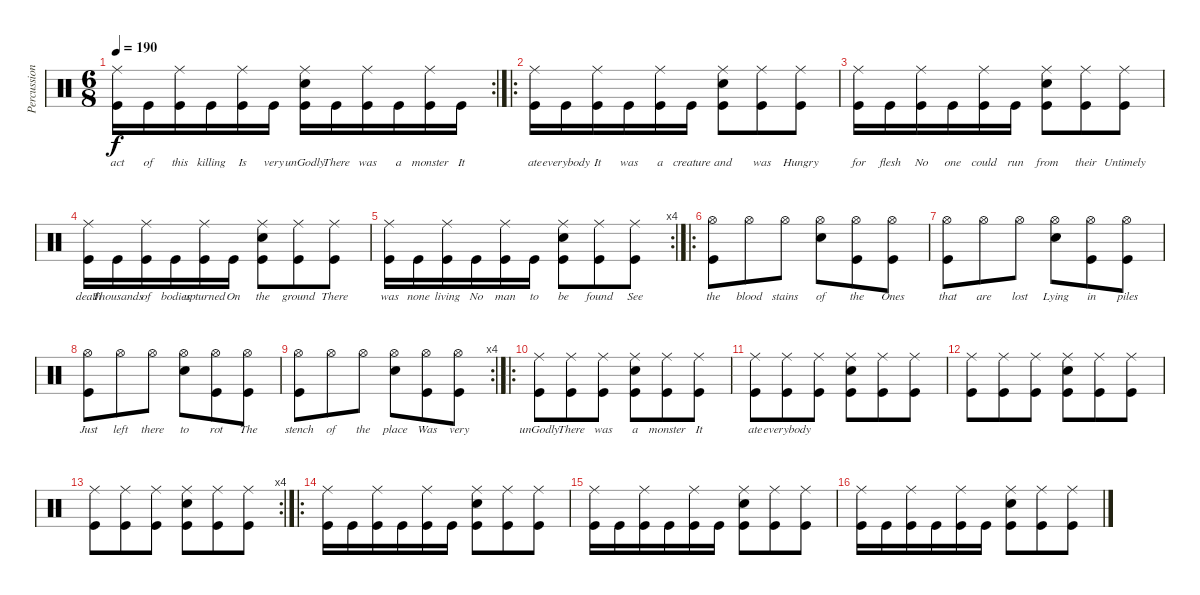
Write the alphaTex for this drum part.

\track ("Percussion" "Percussion") {instrument percussion}
\staff {score}
\articulation defaults
\rc 2
\ts (6 8)
\tempo 190
\clef neutral
\ks c
("Ride (middle)" "Kick (hit)").16{lyrics (0 "act") lyrics (1 "") lyrics (2 "") lyrics (3 "") lyrics (4 "") dy f} "Kick (hit)".16{lyrics (0 "of") lyrics (1 "") lyrics (2 "") lyrics (3 "") lyrics (4 "")} ("Ride (middle)" "Kick (hit)").16{lyrics (0 "this") lyrics (1 "") lyrics (2 "") lyrics (3 "") lyrics (4 "")} "Kick (hit)".16{lyrics (0 "killing") lyrics (1 "") lyrics (2 "") lyrics (3 "") lyrics (4 "")} ("Ride (middle)" "Kick (hit)").16{lyrics (0 "Is") lyrics (1 "") lyrics (2 "") lyrics (3 "") lyrics (4 "")} "Kick (hit)".16{lyrics (0 "very") lyrics (1 "") lyrics (2 "") lyrics (3 "") lyrics (4 "")} ("Ride (middle)" "Snare (hit) 2" "Kick (hit)").16{lyrics (0 "unGodly") lyrics (1 "") lyrics (2 "") lyrics (3 "") lyrics (4 "")} "Kick (hit)".16{lyrics (0 "There") lyrics (1 "") lyrics (2 "") lyrics (3 "") lyrics (4 "")} ("Ride (middle)" "Kick (hit)").16{lyrics (0 "was") lyrics (1 "") lyrics (2 "") lyrics (3 "") lyrics (4 "")} "Kick (hit)".16{lyrics (0 "a") lyrics (1 "") lyrics (2 "") lyrics (3 "") lyrics (4 "")} ("Ride (middle)" "Kick (hit)").16{lyrics (0 "monster") lyrics (1 "") lyrics (2 "") lyrics (3 "") lyrics (4 "")} "Kick (hit)".16{lyrics (0 "It") lyrics (1 "") lyrics (2 "") lyrics (3 "") lyrics (4 "")} |
\ro
("Ride (middle)" "Kick (hit)").16{lyrics (0 "ate") lyrics (1 "") lyrics (2 "") lyrics (3 "") lyrics (4 "")} "Kick (hit)".16{lyrics (0 "everybody") lyrics (1 "") lyrics (2 "") lyrics (3 "") lyrics (4 "")} ("Ride (middle)" "Kick (hit)").16{lyrics (0 "It") lyrics (1 "") lyrics (2 "") lyrics (3 "") lyrics (4 "")} "Kick (hit)".16{lyrics (0 "was") lyrics (1 "") lyrics (2 "") lyrics (3 "") lyrics (4 "")} ("Ride (middle)" "Kick (hit)").16{lyrics (0 "a") lyrics (1 "") lyrics (2 "") lyrics (3 "") lyrics (4 "")} "Kick (hit)".16{lyrics (0 "creature") lyrics (1 "") lyrics (2 "") lyrics (3 "") lyrics (4 "")} ("Ride (middle)" "Snare (hit) 2" "Kick (hit)").8{lyrics (0 "and") lyrics (1 "") lyrics (2 "") lyrics (3 "") lyrics (4 "")} ("Ride (middle)" "Kick (hit)").8{lyrics (0 "was") lyrics (1 "") lyrics (2 "") lyrics (3 "") lyrics (4 "")} ("Ride (middle)" "Kick (hit)").8{lyrics (0 "Hungry") lyrics (1 "") lyrics (2 "") lyrics (3 "") lyrics (4 "")} |
("Ride (middle)" "Kick (hit)").16{lyrics (0 "for") lyrics (1 "") lyrics (2 "") lyrics (3 "") lyrics (4 "")} "Kick (hit)".16{lyrics (0 "flesh") lyrics (1 "") lyrics (2 "") lyrics (3 "") lyrics (4 "")} ("Ride (middle)" "Kick (hit)").16{lyrics (0 "No") lyrics (1 "") lyrics (2 "") lyrics (3 "") lyrics (4 "")} "Kick (hit)".16{lyrics (0 "one") lyrics (1 "") lyrics (2 "") lyrics (3 "") lyrics (4 "")} ("Ride (middle)" "Kick (hit)").16{lyrics (0 "could") lyrics (1 "") lyrics (2 "") lyrics (3 "") lyrics (4 "")} "Kick (hit)".16{lyrics (0 "run") lyrics (1 "") lyrics (2 "") lyrics (3 "") lyrics (4 "")} ("Ride (middle)" "Snare (hit) 2" "Kick (hit)").8{lyrics (0 "from") lyrics (1 "") lyrics (2 "") lyrics (3 "") lyrics (4 "")} ("Ride (middle)" "Kick (hit)").8{lyrics (0 "their") lyrics (1 "") lyrics (2 "") lyrics (3 "") lyrics (4 "")} ("Ride (middle)" "Kick (hit)").8{lyrics (0 "Untimely") lyrics (1 "") lyrics (2 "") lyrics (3 "") lyrics (4 "")} |
("Ride (middle)" "Kick (hit)").16{lyrics (0 "death") lyrics (1 "") lyrics (2 "") lyrics (3 "") lyrics (4 "")} "Kick (hit)".16{lyrics (0 "Thousands") lyrics (1 "") lyrics (2 "") lyrics (3 "") lyrics (4 "")} ("Ride (middle)" "Kick (hit)").16{lyrics (0 "of") lyrics (1 "") lyrics (2 "") lyrics (3 "") lyrics (4 "")} "Kick (hit)".16{lyrics (0 "bodies") lyrics (1 "") lyrics (2 "") lyrics (3 "") lyrics (4 "")} ("Ride (middle)" "Kick (hit)").16{lyrics (0 "upturned") lyrics (1 "") lyrics (2 "") lyrics (3 "") lyrics (4 "")} "Kick (hit)".16{lyrics (0 "On") lyrics (1 "") lyrics (2 "") lyrics (3 "") lyrics (4 "")} ("Ride (middle)" "Snare (hit) 2" "Kick (hit)").8{lyrics (0 "the") lyrics (1 "") lyrics (2 "") lyrics (3 "") lyrics (4 "")} ("Ride (middle)" "Kick (hit)").8{lyrics (0 "ground") lyrics (1 "") lyrics (2 "") lyrics (3 "") lyrics (4 "")} ("Ride (middle)" "Kick (hit)").8{lyrics (0 "There") lyrics (1 "") lyrics (2 "") lyrics (3 "") lyrics (4 "")} |
\rc 4
("Ride (middle)" "Kick (hit)").16{lyrics (0 "was") lyrics (1 "") lyrics (2 "") lyrics (3 "") lyrics (4 "")} "Kick (hit)".16{lyrics (0 "none") lyrics (1 "") lyrics (2 "") lyrics (3 "") lyrics (4 "")} ("Ride (middle)" "Kick (hit)").16{lyrics (0 "living") lyrics (1 "") lyrics (2 "") lyrics (3 "") lyrics (4 "")} "Kick (hit)".16{lyrics (0 "No") lyrics (1 "") lyrics (2 "") lyrics (3 "") lyrics (4 "")} ("Ride (middle)" "Kick (hit)").16{lyrics (0 "man") lyrics (1 "") lyrics (2 "") lyrics (3 "") lyrics (4 "")} "Kick (hit)".16{lyrics (0 "to") lyrics (1 "") lyrics (2 "") lyrics (3 "") lyrics (4 "")} ("Ride (middle)" "Snare (hit) 2" "Kick (hit)").8{lyrics (0 "be") lyrics (1 "") lyrics (2 "") lyrics (3 "") lyrics (4 "")} ("Ride (middle)" "Kick (hit)").8{lyrics (0 "found") lyrics (1 "") lyrics (2 "") lyrics (3 "") lyrics (4 "")} ("Ride (middle)" "Kick (hit)").8{lyrics (0 "See") lyrics (1 "") lyrics (2 "") lyrics (3 "") lyrics (4 "")} |
\ro
("Hi-Hat (open)" "Kick (hit)").8{lyrics (0 "the") lyrics (1 "") lyrics (2 "") lyrics (3 "") lyrics (4 "")} "Hi-Hat (open)".8{lyrics (0 "blood") lyrics (1 "") lyrics (2 "") lyrics (3 "") lyrics (4 "")} "Hi-Hat (open)".8{lyrics (0 "stains") lyrics (1 "") lyrics (2 "") lyrics (3 "") lyrics (4 "")} ("Hi-Hat (open)" "Snare (hit) 2").8{lyrics (0 "of") lyrics (1 "") lyrics (2 "") lyrics (3 "") lyrics (4 "")} ("Hi-Hat (open)" "Kick (hit)").8{lyrics (0 "the") lyrics (1 "") lyrics (2 "") lyrics (3 "") lyrics (4 "")} ("Hi-Hat (open)" "Kick (hit)").8{lyrics (0 "Ones") lyrics (1 "") lyrics (2 "") lyrics (3 "") lyrics (4 "")} |
("Hi-Hat (open)" "Kick (hit)").8{lyrics (0 "that") lyrics (1 "") lyrics (2 "") lyrics (3 "") lyrics (4 "")} "Hi-Hat (open)".8{lyrics (0 "are") lyrics (1 "") lyrics (2 "") lyrics (3 "") lyrics (4 "")} "Hi-Hat (open)".8{lyrics (0 "lost") lyrics (1 "") lyrics (2 "") lyrics (3 "") lyrics (4 "")} ("Hi-Hat (open)" "Snare (hit) 2").8{lyrics (0 "Lying") lyrics (1 "") lyrics (2 "") lyrics (3 "") lyrics (4 "")} ("Hi-Hat (open)" "Kick (hit)").8{lyrics (0 "in") lyrics (1 "") lyrics (2 "") lyrics (3 "") lyrics (4 "")} ("Hi-Hat (open)" "Kick (hit)").8{lyrics (0 "piles") lyrics (1 "") lyrics (2 "") lyrics (3 "") lyrics (4 "")} |
("Hi-Hat (open)" "Kick (hit)").8{lyrics (0 "Just") lyrics (1 "") lyrics (2 "") lyrics (3 "") lyrics (4 "")} "Hi-Hat (open)".8{lyrics (0 "left") lyrics (1 "") lyrics (2 "") lyrics (3 "") lyrics (4 "")} "Hi-Hat (open)".8{lyrics (0 "there") lyrics (1 "") lyrics (2 "") lyrics (3 "") lyrics (4 "")} ("Hi-Hat (open)" "Snare (hit) 2").8{lyrics (0 "to") lyrics (1 "") lyrics (2 "") lyrics (3 "") lyrics (4 "")} ("Hi-Hat (open)" "Kick (hit)").8{lyrics (0 "rot") lyrics (1 "") lyrics (2 "") lyrics (3 "") lyrics (4 "")} ("Hi-Hat (open)" "Kick (hit)").8{lyrics (0 "The") lyrics (1 "") lyrics (2 "") lyrics (3 "") lyrics (4 "")} |
\rc 4
("Hi-Hat (open)" "Kick (hit)").8{lyrics (0 "stench") lyrics (1 "") lyrics (2 "") lyrics (3 "") lyrics (4 "")} "Hi-Hat (open)".8{lyrics (0 "of") lyrics (1 "") lyrics (2 "") lyrics (3 "") lyrics (4 "")} "Hi-Hat (open)".8{lyrics (0 "the") lyrics (1 "") lyrics (2 "") lyrics (3 "") lyrics (4 "")} ("Hi-Hat (open)" "Snare (hit) 2").8{lyrics (0 "place") lyrics (1 "") lyrics (2 "") lyrics (3 "") lyrics (4 "")} ("Hi-Hat (open)" "Kick (hit)").8{lyrics (0 "Was") lyrics (1 "") lyrics (2 "") lyrics (3 "") lyrics (4 "")} ("Hi-Hat (open)" "Kick (hit)").8{lyrics (0 "very") lyrics (1 "") lyrics (2 "") lyrics (3 "") lyrics (4 "")} |
\ro
("Ride (middle)" "Kick (hit)").8{lyrics (0 "unGodly") lyrics (1 "") lyrics (2 "") lyrics (3 "") lyrics (4 "")} ("Ride (middle)" "Kick (hit)").8{lyrics (0 "There") lyrics (1 "") lyrics (2 "") lyrics (3 "") lyrics (4 "")} ("Ride (middle)" "Kick (hit)").8{lyrics (0 "was") lyrics (1 "") lyrics (2 "") lyrics (3 "") lyrics (4 "")} ("Ride (middle)" "Snare (hit) 2" "Kick (hit)").8{lyrics (0 "a") lyrics (1 "") lyrics (2 "") lyrics (3 "") lyrics (4 "")} ("Ride (middle)" "Kick (hit)").8{lyrics (0 "monster") lyrics (1 "") lyrics (2 "") lyrics (3 "") lyrics (4 "")} ("Ride (middle)" "Kick (hit)").8{lyrics (0 "It") lyrics (1 "") lyrics (2 "") lyrics (3 "") lyrics (4 "")} |
("Ride (middle)" "Kick (hit)").8{lyrics (0 "ate") lyrics (1 "") lyrics (2 "") lyrics (3 "") lyrics (4 "")} ("Ride (middle)" "Kick (hit)").8{lyrics (0 "everybody") lyrics (1 "") lyrics (2 "") lyrics (3 "") lyrics (4 "")} ("Ride (middle)" "Kick (hit)").8 ("Ride (middle)" "Snare (hit) 2" "Kick (hit)").8 ("Ride (middle)" "Kick (hit)").8 ("Ride (middle)" "Kick (hit)").8 |
("Ride (middle)" "Kick (hit)").8 ("Ride (middle)" "Kick (hit)").8 ("Ride (middle)" "Kick (hit)").8 ("Ride (middle)" "Snare (hit) 2" "Kick (hit)").8 ("Ride (middle)" "Kick (hit)").8 ("Ride (middle)" "Kick (hit)").8 |
\rc 4
("Ride (middle)" "Kick (hit)").8 ("Ride (middle)" "Kick (hit)").8 ("Ride (middle)" "Kick (hit)").8 ("Ride (middle)" "Snare (hit) 2" "Kick (hit)").8 ("Ride (middle)" "Kick (hit)").8 ("Ride (middle)" "Kick (hit)").8 |
\ro
("Ride (middle)" "Kick (hit)").16 "Kick (hit)".16 ("Ride (middle)" "Kick (hit)").16 "Kick (hit)".16 ("Ride (middle)" "Kick (hit)").16 "Kick (hit)".16 ("Ride (middle)" "Snare (hit) 2" "Kick (hit)").8 ("Ride (middle)" "Kick (hit)").8 ("Ride (middle)" "Kick (hit)").8 |
("Ride (middle)" "Kick (hit)").16 "Kick (hit)".16 ("Ride (middle)" "Kick (hit)").16 "Kick (hit)".16 ("Ride (middle)" "Kick (hit)").16 "Kick (hit)".16 ("Ride (middle)" "Snare (hit) 2" "Kick (hit)").8 ("Ride (middle)" "Kick (hit)").8 ("Ride (middle)" "Kick (hit)").8 |
("Ride (middle)" "Kick (hit)").16 "Kick (hit)".16 ("Ride (middle)" "Kick (hit)").16 "Kick (hit)".16 ("Ride (middle)" "Kick (hit)").16 "Kick (hit)".16 ("Ride (middle)" "Snare (hit) 2" "Kick (hit)").8 ("Ride (middle)" "Kick (hit)").8 ("Ride (middle)" "Kick (hit)").8
